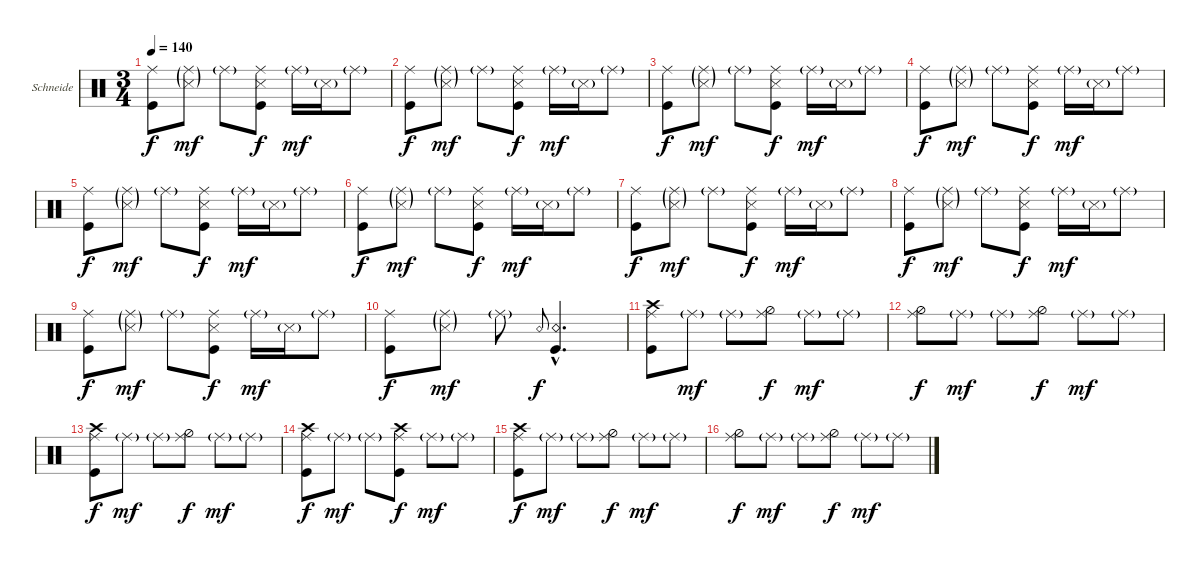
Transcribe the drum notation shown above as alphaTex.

\bracketExtendMode groupsimilarinstruments
\firstSystemTrackNameOrientation horizontal
\otherSystemsTrackNameOrientation horizontal
\track ("Christoph \"Doom\" Schneider" "Schneide") {instrument percussion}
\staff {score}
\articulation defaults
\ts (3 4)
\tempo 140
\clef neutral
\ks c
("Ride (middle)" "Kick (hit)").8{dy f} ("Ride (middle)"{g} "Snare (side stick) 3"{g}).8{dy mf} "Ride (middle)"{g}.8 ("Ride (middle)" "Kick (hit)" "Snare (side stick) 3").8{dy f} "Ride (middle)"{g}.16{dy mf} "Snare (side stick) 3"{g}.16 "Ride (middle)"{g}.8 |
("Ride (middle)" "Kick (hit)").8{dy f} ("Ride (middle)"{g} "Snare (side stick) 3"{g}).8{dy mf} "Ride (middle)"{g}.8 ("Ride (middle)" "Kick (hit)" "Snare (side stick) 3").8{dy f} "Ride (middle)"{g}.16{dy mf} "Snare (side stick) 3"{g}.16 "Ride (middle)"{g}.8 |
("Ride (middle)" "Kick (hit)").8{dy f} ("Ride (middle)"{g} "Snare (side stick) 3"{g}).8{dy mf} "Ride (middle)"{g}.8 ("Ride (middle)" "Kick (hit)" "Snare (side stick) 3").8{dy f} "Ride (middle)"{g}.16{dy mf} "Snare (side stick) 3"{g}.16 "Ride (middle)"{g}.8 |
("Ride (middle)" "Kick (hit)").8{dy f} ("Ride (middle)"{g} "Snare (side stick) 3"{g}).8{dy mf} "Ride (middle)"{g}.8 ("Ride (middle)" "Kick (hit)" "Snare (side stick) 3").8{dy f} "Ride (middle)"{g}.16{dy mf} "Snare (side stick) 3"{g}.16 "Ride (middle)"{g}.8 |
("Ride (middle)" "Kick (hit)").8{dy f} ("Ride (middle)"{g} "Snare (side stick) 3"{g}).8{dy mf} "Ride (middle)"{g}.8 ("Ride (middle)" "Kick (hit)" "Snare (side stick) 3").8{dy f} "Ride (middle)"{g}.16{dy mf} "Snare (side stick) 3"{g}.16 "Ride (middle)"{g}.8 |
("Ride (middle)" "Kick (hit)").8{dy f} ("Ride (middle)"{g} "Snare (side stick) 3"{g}).8{dy mf} "Ride (middle)"{g}.8 ("Ride (middle)" "Kick (hit)" "Snare (side stick) 3").8{dy f} "Ride (middle)"{g}.16{dy mf} "Snare (side stick) 3"{g}.16 "Ride (middle)"{g}.8 |
("Ride (middle)" "Kick (hit)").8{dy f} ("Ride (middle)"{g} "Snare (side stick) 3"{g}).8{dy mf} "Ride (middle)"{g}.8 ("Ride (middle)" "Kick (hit)" "Snare (side stick) 3").8{dy f} "Ride (middle)"{g}.16{dy mf} "Snare (side stick) 3"{g}.16 "Ride (middle)"{g}.8 |
("Ride (middle)" "Kick (hit)").8{dy f} ("Ride (middle)"{g} "Snare (side stick) 3"{g}).8{dy mf} "Ride (middle)"{g}.8 ("Ride (middle)" "Kick (hit)" "Snare (side stick) 3").8{dy f} "Ride (middle)"{g}.16{dy mf} "Snare (side stick) 3"{g}.16 "Ride (middle)"{g}.8 |
("Ride (middle)" "Kick (hit)").8{dy f} ("Ride (middle)"{g} "Snare (side stick) 3"{g}).8{dy mf} "Ride (middle)"{g}.8 ("Ride (middle)" "Kick (hit)" "Snare (side stick) 3").8{dy f} "Ride (middle)"{g}.16{dy mf} "Snare (side stick) 3"{g}.16 "Ride (middle)"{g}.8 |
("Ride (middle)" "Kick (hit)").8{dy f} ("Ride (middle)"{g} "Snare (side stick) 3"{g}).8{dy mf} "Ride (middle)"{g}.8 "Snare (rim shot)".8{gr onbeat dy f} ("Kick (hit)" "Snare (rim shot)"{hac}).4{d} |
("Ride (middle)" "Kick (hit)" "Crash high (hit)").8 "Ride (middle)"{g}.8{dy mf} "Ride (middle)"{g}.8 ("Ride (middle)" "Hi-Hat (half)").8{dy f} "Ride (middle)"{g}.8{dy mf} "Ride (middle)"{g}.8 |
("Ride (middle)" "Hi-Hat (half)").8{dy f} "Ride (middle)"{g}.8{dy mf} "Ride (middle)"{g}.8 ("Ride (middle)" "Hi-Hat (half)").8{dy f} "Ride (middle)"{g}.8{dy mf} "Ride (middle)"{g}.8 |
("Ride (middle)" "Kick (hit)" "Crash high (hit)").8{dy f} "Ride (middle)"{g}.8{dy mf} "Ride (middle)"{g}.8 ("Ride (middle)" "Hi-Hat (half)").8{dy f} "Ride (middle)"{g}.8{dy mf} "Ride (middle)"{g}.8 |
("Ride (middle)" "Kick (hit)" "Crash high (hit)").8{dy f} "Ride (middle)"{g}.8{dy mf} "Ride (middle)"{g}.8 ("Ride (middle)" "Kick (hit)" "Crash high (hit)").8{dy f} "Ride (middle)"{g}.8{dy mf} "Ride (middle)"{g}.8 |
("Ride (middle)" "Kick (hit)" "Crash high (hit)").8{dy f} "Ride (middle)"{g}.8{dy mf} "Ride (middle)"{g}.8 ("Ride (middle)" "Hi-Hat (half)").8{dy f} "Ride (middle)"{g}.8{dy mf} "Ride (middle)"{g}.8 |
("Ride (middle)" "Hi-Hat (half)").8{dy f} "Ride (middle)"{g}.8{dy mf} "Ride (middle)"{g}.8 ("Ride (middle)" "Hi-Hat (half)").8{dy f} "Ride (middle)"{g}.8{dy mf} "Ride (middle)"{g}.8
